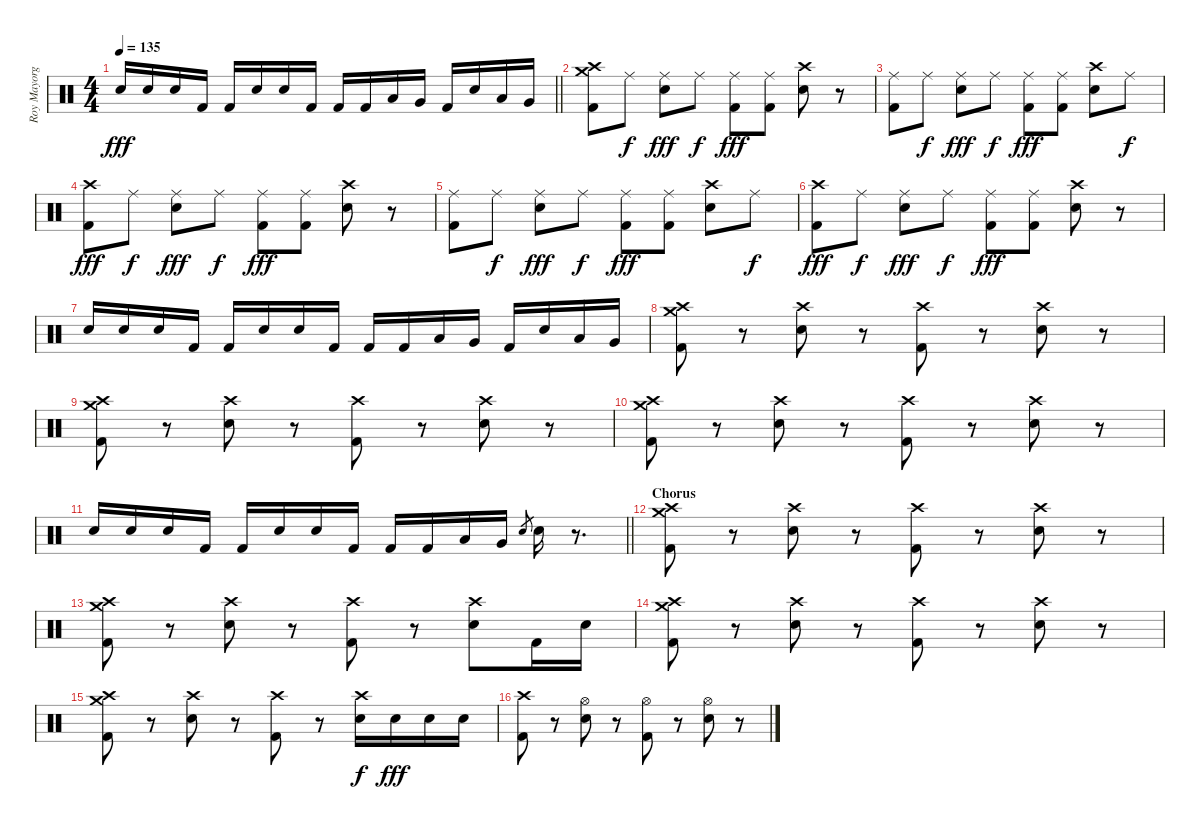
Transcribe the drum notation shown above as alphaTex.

\track ("Roy Mayorga" "Roy Mayorg") {instrument percussion}
\staff {score}
\articulation defaults
\ts (4 4)
\tempo 135
\clef neutral
\barLineRight lightlight
\ks c "Electric Snare (hit)".16{dy fff} "Electric Snare (hit)".16 "Electric Snare (hit)".16 "Kick (hit) 2".16 "Kick (hit) 2".16 "Electric Snare (hit)".16 "Electric Snare (hit)".16 "Kick (hit) 2".16 "Kick (hit) 2".16 "Kick (hit) 2".16 "Low Tom (hit)".16 "Very Low Tom (hit)".16 "Kick (hit) 2".16 "Electric Snare (hit)".16 "Low Tom (hit)".16 "Very Low Tom (hit)".16
|
("Crash high (hit)" "Crash medium (hit)" "Kick (hit) 2").8 "Ride (middle)".8{dy f} ("Ride (middle)" "Electric Snare (hit)").8{dy fff} "Ride (middle)".8{dy f} ("Ride (middle)" "Kick (hit) 2").8{dy fff} ("Ride (middle)" "Kick (hit) 2").8 ("Crash high (hit)" "Electric Snare (hit)").8 r.8 |
("Ride (middle)" "Kick (hit) 2").8 "Ride (middle)".8{dy f} ("Ride (middle)" "Electric Snare (hit)").8{dy fff} "Ride (middle)".8{dy f} ("Ride (middle)" "Kick (hit) 2").8{dy fff} ("Ride (middle)" "Kick (hit) 2").8 ("Crash high (hit)" "Electric Snare (hit)").8 "Ride (middle)".8{dy f} |
("Crash high (hit)" "Kick (hit) 2").8{dy fff} "Ride (middle)".8{dy f} ("Ride (middle)" "Electric Snare (hit)").8{dy fff} "Ride (middle)".8{dy f} ("Ride (middle)" "Kick (hit) 2").8{dy fff} ("Ride (middle)" "Kick (hit) 2").8 ("Crash high (hit)" "Electric Snare (hit)").8 r.8 |
("Ride (middle)" "Kick (hit) 2").8 "Ride (middle)".8{dy f} ("Ride (middle)" "Electric Snare (hit)").8{dy fff} "Ride (middle)".8{dy f} ("Ride (middle)" "Kick (hit) 2").8{dy fff} ("Ride (middle)" "Kick (hit) 2").8 ("Crash high (hit)" "Electric Snare (hit)").8 "Ride (middle)".8{dy f} |
("Crash high (hit)" "Kick (hit) 2").8{dy fff} "Ride (middle)".8{dy f} ("Ride (middle)" "Electric Snare (hit)").8{dy fff} "Ride (middle)".8{dy f} ("Ride (middle)" "Kick (hit) 2").8{dy fff} ("Ride (middle)" "Kick (hit) 2").8 ("Crash high (hit)" "Electric Snare (hit)").8 r.8 |
"Electric Snare (hit)".16 "Electric Snare (hit)".16 "Electric Snare (hit)".16 "Kick (hit) 2".16 "Kick (hit) 2".16 "Electric Snare (hit)".16 "Electric Snare (hit)".16 "Kick (hit) 2".16 "Kick (hit) 2".16 "Kick (hit) 2".16 "Low Tom (hit)".16 "Very Low Tom (hit)".16 "Kick (hit) 2".16 "Electric Snare (hit)".16 "Low Tom (hit)".16 "Very Low Tom (hit)".16 |
("Crash medium (hit)" "Crash high (hit)" "Kick (hit) 2").8 r.8 ("Crash high (hit)" "Electric Snare (hit)").8 r.8 ("Crash high (hit)" "Kick (hit) 2").8 r.8 ("Crash high (hit)" "Electric Snare (hit)").8 r.8 |
("Crash medium (hit)" "Crash high (hit)" "Kick (hit) 2").8 r.8 ("Crash high (hit)" "Electric Snare (hit)").8 r.8 ("Crash high (hit)" "Kick (hit) 2").8 r.8 ("Crash high (hit)" "Electric Snare (hit)").8 r.8 |
("Crash medium (hit)" "Crash high (hit)" "Kick (hit) 2").8 r.8 ("Crash high (hit)" "Electric Snare (hit)").8 r.8 ("Crash high (hit)" "Kick (hit) 2").8 r.8 ("Crash high (hit)" "Electric Snare (hit)").8 r.8 |
\barLineRight lightlight "Electric Snare (hit)".16 "Electric Snare (hit)".16 "Electric Snare (hit)".16 "Kick (hit) 2".16 "Kick (hit) 2".16 "Electric Snare (hit)".16 "Electric Snare (hit)".16 "Kick (hit) 2".16 "Kick (hit) 2".16 "Kick (hit) 2".16 "Low Tom (hit)".16 "Very Low Tom (hit)".16 "Electric Snare (hit)".8{gr} "Electric Snare (hit)".16
r.8{d} |
\section ("" "Chorus")
("Crash medium (hit)" "Crash high (hit)" "Kick (hit) 2").8 r.8 ("Crash high (hit)" "Electric Snare (hit)").8 r.8 ("Crash high (hit)" "Kick (hit) 2").8 r.8 ("Crash high (hit)" "Electric Snare (hit)").8 r.8 |
("Crash medium (hit)" "Crash high (hit)" "Kick (hit) 2").8 r.8 ("Crash high (hit)" "Electric Snare (hit)").8 r.8 ("Crash high (hit)" "Kick (hit) 2").8 r.8 ("Crash high (hit)" "Electric Snare (hit)").8 "Kick (hit) 2".16 "Electric Snare (hit)".16 |
("Crash medium (hit)" "Crash high (hit)" "Kick (hit) 2").8 r.8 ("Crash high (hit)" "Electric Snare (hit)").8 r.8 ("Crash high (hit)" "Kick (hit) 2").8 r.8 ("Crash high (hit)" "Electric Snare (hit)").8 r.8 |
("Crash medium (hit)" "Crash high (hit)" "Kick (hit) 2").8 r.8 ("Crash high (hit)" "Electric Snare (hit)").8 r.8 ("Crash high (hit)" "Kick (hit) 2").8 r.8 ("Crash high (hit)" "Electric Snare (hit)").16{dy f} "Electric Snare (hit)".16{dy fff} "Electric Snare (hit)".16 "Electric Snare (hit)".16 |
("Crash high (hit)" "Kick (hit) 2").8 r.8 ("Hi-Hat (open)" "Electric Snare (hit)").8 r.8 ("Hi-Hat (open)" "Kick (hit) 2").8 r.8 ("Hi-Hat (open)" "Electric Snare (hit)").8 r.8
